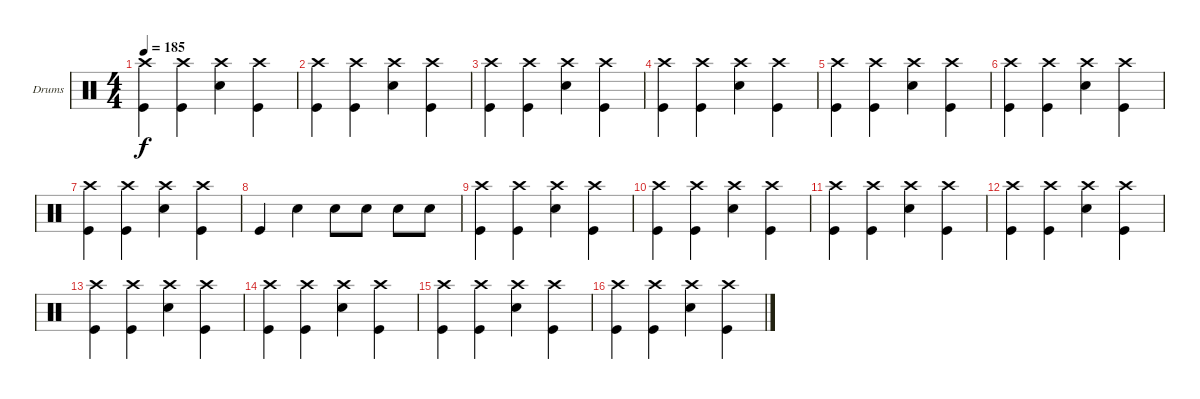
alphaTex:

\defaultSystemsLayout 4
\bracketExtendMode groupsimilarinstruments
\firstSystemTrackNameOrientation horizontal
\otherSystemsTrackNameOrientation horizontal
\track ("Chuck Comeau" "Drums") {instrument percussion}
\staff {score}
\articulation defaults
\ts (4 4)
\tempo 185
\clef neutral
\scale
0.333333
\ks c
("Crash high (hit)" "Kick (hit)").4{dy f} ("Crash high (hit)" "Kick (hit)").4 ("Crash high (hit)" "Snare (hit) 2").4 ("Crash high (hit)" "Kick (hit)").4 |
\scale
0.333333 ("Crash high (hit)" "Kick (hit)").4 ("Crash high (hit)" "Kick (hit)").4 ("Crash high (hit)" "Snare (hit) 2").4 ("Crash high (hit)" "Kick (hit)").4 |
\scale
0.333333 ("Crash high (hit)" "Kick (hit)").4 ("Crash high (hit)" "Kick (hit)").4 ("Crash high (hit)" "Snare (hit) 2").4 ("Crash high (hit)" "Kick (hit)").4 |
\scale
0.333333 ("Crash high (hit)" "Kick (hit)").4 ("Crash high (hit)" "Kick (hit)").4 ("Crash high (hit)" "Snare (hit) 2").4 ("Crash high (hit)" "Kick (hit)").4 |
\scale
0.333333 ("Crash high (hit)" "Kick (hit)").4 ("Crash high (hit)" "Kick (hit)").4 ("Crash high (hit)" "Snare (hit) 2").4 ("Crash high (hit)" "Kick (hit)").4 |
\scale
0.333333 ("Crash high (hit)" "Kick (hit)").4 ("Crash high (hit)" "Kick (hit)").4 ("Crash high (hit)" "Snare (hit) 2").4 ("Crash high (hit)" "Kick (hit)").4 |
\scale
0.333333 ("Crash high (hit)" "Kick (hit)").4 ("Crash high (hit)" "Kick (hit)").4 ("Crash high (hit)" "Snare (hit) 2").4 ("Crash high (hit)" "Kick (hit)").4 |
\scale
0.333333 "Kick (hit)".4 "Snare (hit) 2".4 "Snare (hit) 2".8 "Snare (hit) 2".8 "Snare (hit) 2".8 "Snare (hit) 2".8 |
\scale
0.333333 ("Crash high (hit)" "Kick (hit)").4 ("Crash high (hit)" "Kick (hit)").4 ("Crash high (hit)" "Snare (hit) 2").4 ("Crash high (hit)" "Kick (hit)").4 |
\scale
0.333333 ("Crash high (hit)" "Kick (hit)").4 ("Crash high (hit)" "Kick (hit)").4 ("Crash high (hit)" "Snare (hit) 2").4 ("Crash high (hit)" "Kick (hit)").4 |
\scale
0.333333 ("Crash high (hit)" "Kick (hit)").4 ("Crash high (hit)" "Kick (hit)").4 ("Crash high (hit)" "Snare (hit) 2").4 ("Crash high (hit)" "Kick (hit)").4 |
\scale
0.333333 ("Crash high (hit)" "Kick (hit)").4 ("Crash high (hit)" "Kick (hit)").4 ("Crash high (hit)" "Snare (hit) 2").4 ("Crash high (hit)" "Kick (hit)").4 |
\scale
0.333333 ("Crash high (hit)" "Kick (hit)").4 ("Crash high (hit)" "Kick (hit)").4 ("Crash high (hit)" "Snare (hit) 2").4 ("Crash high (hit)" "Kick (hit)").4 |
\scale
0.333333 ("Crash high (hit)" "Kick (hit)").4 ("Crash high (hit)" "Kick (hit)").4 ("Crash high (hit)" "Snare (hit) 2").4 ("Crash high (hit)" "Kick (hit)").4 |
\scale
0.333333 ("Crash high (hit)" "Kick (hit)").4 ("Crash high (hit)" "Kick (hit)").4 ("Crash high (hit)" "Snare (hit) 2").4 ("Crash high (hit)" "Kick (hit)").4 |
\scale
0.333333 ("Crash high (hit)" "Kick (hit)").4 ("Crash high (hit)" "Kick (hit)").4 ("Crash high (hit)" "Snare (hit) 2").4 ("Crash high (hit)" "Kick (hit)").4
